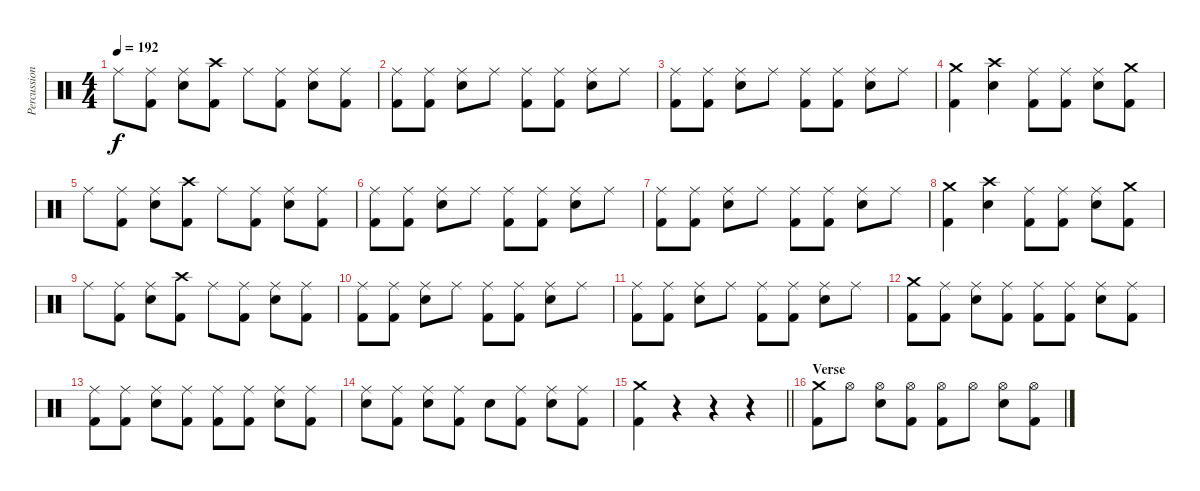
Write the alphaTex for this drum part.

\track ("Percussion" "Percussion") {instrument percussion}
\staff {score}
\articulation defaults
\ts (4 4)
\tempo 192
\clef neutral
\ks c "Ride (middle)".8{dy f}
("Ride (middle)" "Kick (hit) 2").8 ("Ride (middle)" "Electric Snare (hit)").8 ("Crash high (hit)" "Kick (hit) 2").8 "Ride (middle)".8 ("Ride (middle)" "Kick (hit) 2").8 ("Ride (middle)" "Electric Snare (hit)").8 ("Ride (middle)" "Kick (hit) 2").8 |
("Ride (middle)" "Kick (hit) 2").8 ("Ride (middle)" "Kick (hit) 2").8 ("Ride (middle)" "Electric Snare (hit)").8 "Ride (middle)".8 ("Ride (middle)" "Kick (hit) 2").8 ("Ride (middle)" "Kick (hit) 2").8 ("Ride (middle)" "Electric Snare (hit)").8 "Ride (middle)".8 |
("Ride (middle)" "Kick (hit) 2").8 ("Ride (middle)" "Kick (hit) 2").8 ("Ride (middle)" "Electric Snare (hit)").8 "Ride (middle)".8 ("Ride (middle)" "Kick (hit) 2").8 ("Ride (middle)" "Kick (hit) 2").8 ("Ride (middle)" "Electric Snare (hit)").8 "Ride (middle)".8 |
("Crash medium (hit)" "Kick (hit) 2").4 ("Crash high (hit)" "Electric Snare (hit)").4 ("Ride (middle)" "Kick (hit) 2").8 ("Ride (middle)" "Kick (hit) 2").8 ("Ride (middle)" "Electric Snare (hit)").8 ("Crash medium (hit)" "Kick (hit) 2").8 |
"Ride (middle)".8 ("Ride (middle)" "Kick (hit) 2").8 ("Ride (middle)" "Electric Snare (hit)").8 ("Crash high (hit)" "Kick (hit) 2").8 "Ride (middle)".8 ("Ride (middle)" "Kick (hit) 2").8 ("Ride (middle)" "Electric Snare (hit)").8 ("Ride (middle)" "Kick (hit) 2").8 |
("Ride (middle)" "Kick (hit) 2").8 ("Ride (middle)" "Kick (hit) 2").8 ("Ride (middle)" "Electric Snare (hit)").8 "Ride (middle)".8 ("Ride (middle)" "Kick (hit) 2").8 ("Ride (middle)" "Kick (hit) 2").8 ("Ride (middle)" "Electric Snare (hit)").8 "Ride (middle)".8 |
("Ride (middle)" "Kick (hit) 2").8 ("Ride (middle)" "Kick (hit) 2").8 ("Ride (middle)" "Electric Snare (hit)").8 "Ride (middle)".8 ("Ride (middle)" "Kick (hit) 2").8 ("Ride (middle)" "Kick (hit) 2").8 ("Ride (middle)" "Electric Snare (hit)").8 "Ride (middle)".8 |
("Crash medium (hit)" "Kick (hit) 2").4 ("Crash high (hit)" "Electric Snare (hit)").4 ("Ride (middle)" "Kick (hit) 2").8 ("Ride (middle)" "Kick (hit) 2").8 ("Ride (middle)" "Electric Snare (hit)").8 ("Crash medium (hit)" "Kick (hit) 2").8 |
"Ride (middle)".8 ("Ride (middle)" "Kick (hit) 2").8 ("Ride (middle)" "Electric Snare (hit)").8 ("Crash high (hit)" "Kick (hit) 2").8 "Ride (middle)".8 ("Ride (middle)" "Kick (hit) 2").8 ("Ride (middle)" "Electric Snare (hit)").8 ("Ride (middle)" "Kick (hit) 2").8 |
("Ride (middle)" "Kick (hit) 2").8 ("Ride (middle)" "Kick (hit) 2").8 ("Ride (middle)" "Electric Snare (hit)").8 "Ride (middle)".8 ("Ride (middle)" "Kick (hit) 2").8 ("Ride (middle)" "Kick (hit) 2").8 ("Ride (middle)" "Electric Snare (hit)").8 "Ride (middle)".8 |
("Ride (middle)" "Kick (hit) 2").8 ("Ride (middle)" "Kick (hit) 2").8 ("Ride (middle)" "Electric Snare (hit)").8 "Ride (middle)".8 ("Ride (middle)" "Kick (hit) 2").8 ("Ride (middle)" "Kick (hit) 2").8 ("Ride (middle)" "Electric Snare (hit)").8 "Ride (middle)".8 |
("Crash medium (hit)" "Kick (hit) 2").8 ("Ride (middle)" "Kick (hit) 2").8 ("Ride (middle)" "Electric Snare (hit)").8 ("Ride (middle)" "Kick (hit) 2").8 ("Ride (middle)" "Kick (hit) 2").8 ("Ride (middle)" "Kick (hit) 2").8 ("Ride (middle)" "Electric Snare (hit)").8 ("Ride (middle)" "Kick (hit) 2").8 |
("Ride (middle)" "Kick (hit) 2").8 ("Ride (middle)" "Kick (hit) 2").8 ("Ride (middle)" "Electric Snare (hit)").8 ("Ride (middle)" "Kick (hit) 2").8 ("Ride (middle)" "Kick (hit) 2").8 ("Ride (middle)" "Kick (hit) 2").8 ("Ride (middle)" "Electric Snare (hit)").8 ("Ride (middle)" "Kick (hit) 2").8 |
("Ride (middle)" "Electric Snare (hit)").8 ("Ride (middle)" "Kick (hit) 2").8 ("Ride (middle)" "Electric Snare (hit)").8 ("Ride (middle)" "Kick (hit) 2").8 "Electric Snare (hit)".8 ("Ride (middle)" "Kick (hit) 2").8 ("Ride (middle)" "Electric Snare (hit)").8 ("Ride (middle)" "Kick (hit) 2").8 |
\barLineRight lightlight
("Crash medium (hit)" "Kick (hit) 2").4 r.4 r.4 r.4 |
\section ("" "Verse")
("Crash medium (hit)" "Kick (hit) 2").8 "Hi-Hat (open)".8 ("Hi-Hat (open)" "Electric Snare (hit)").8 ("Hi-Hat (open)" "Kick (hit) 2").8 ("Hi-Hat (open)" "Kick (hit) 2").8 "Hi-Hat (open)".8 ("Hi-Hat (open)" "Electric Snare (hit)").8 ("Hi-Hat (open)" "Kick (hit) 2").8
